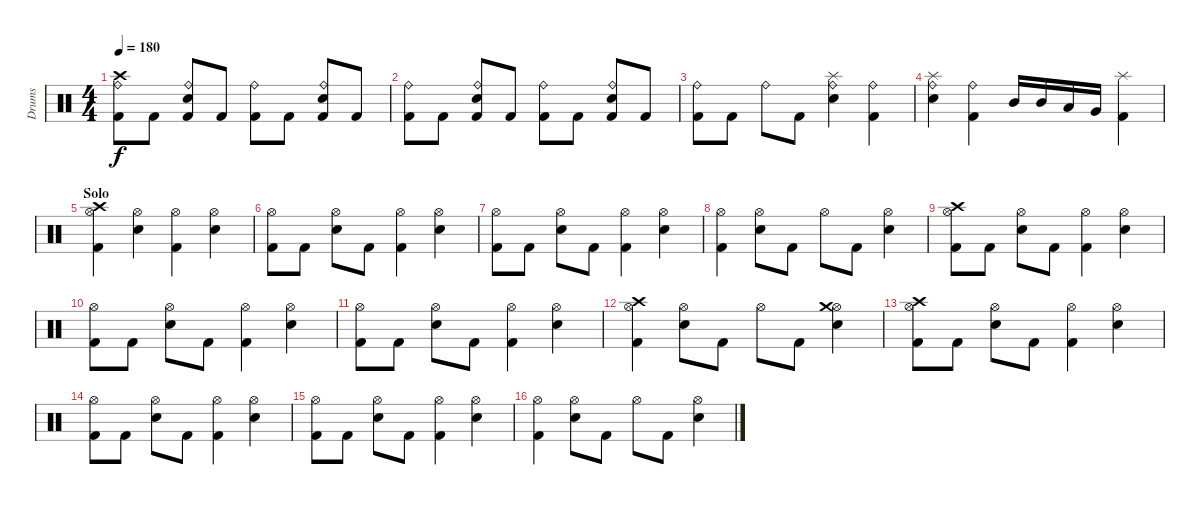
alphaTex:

\track ("Drums" "Drums") {instrument percussion}
\staff {score}
\articulation defaults
\ts (4 4)
\tempo 180
\clef neutral
\ks c
("Kick (hit) 2" "Crash high (hit)" "Ride (bell)").8{dy f} "Kick (hit) 2".8 ("Kick (hit) 2" "Electric Snare (hit)" "Ride (bell)").8 "Kick (hit) 2".8 ("Kick (hit) 2" "Ride (bell)").8 "Kick (hit) 2".8 ("Kick (hit) 2" "Electric Snare (hit)" "Ride (bell)").8 "Kick (hit) 2".8 |
("Kick (hit) 2" "Ride (bell)").8 "Kick (hit) 2".8 ("Kick (hit) 2" "Electric Snare (hit)" "Ride (bell)").8 "Kick (hit) 2".8 ("Kick (hit) 2" "Ride (bell)").8 "Kick (hit) 2".8 ("Kick (hit) 2" "Electric Snare (hit)" "Ride (bell)").8 "Kick (hit) 2".8 |
("Ride (bell)" "Kick (hit) 2").8 "Kick (hit) 2".8 "Ride (bell)".8 "Kick (hit) 2".8 ("Ride (bell)" "Electric Snare (hit)" "Splash (hit)").4 ("Ride (bell)" "Kick (hit) 2").4 |
("Ride (bell)" "Electric Snare (hit)" "Splash (hit)").4 ("Ride (bell)" "Kick (hit) 2").4 "Mid Tom (hit)".16 "Mid Tom (hit)".16 "Low Tom (hit)".16 "Very Low Tom (hit)".16 ("Kick (hit) 2" "Splash (hit)").4 |
\section ("" "Solo")
("Hi-Hat (open)" "Kick (hit) 2" "Crash high (hit)").4 ("Hi-Hat (open)" "Electric Snare (hit)").4 ("Hi-Hat (open)" "Kick (hit) 2").4 ("Hi-Hat (open)" "Electric Snare (hit)").4 |
("Hi-Hat (open)" "Kick (hit) 2").8 "Kick (hit) 2".8 ("Hi-Hat (open)" "Electric Snare (hit)").8 "Kick (hit) 2".8 ("Hi-Hat (open)" "Kick (hit) 2").4 ("Hi-Hat (open)" "Electric Snare (hit)").4 |
("Hi-Hat (open)" "Kick (hit) 2").8 "Kick (hit) 2".8 ("Hi-Hat (open)" "Electric Snare (hit)").8 "Kick (hit) 2".8 ("Hi-Hat (open)" "Kick (hit) 2").4 ("Hi-Hat (open)" "Electric Snare (hit)").4 |
("Hi-Hat (open)" "Kick (hit) 2").4 ("Hi-Hat (open)" "Electric Snare (hit)").8 "Kick (hit) 2".8 "Hi-Hat (open)".8 "Kick (hit) 2".8 ("Hi-Hat (open)" "Electric Snare (hit)").4 |
("Hi-Hat (open)" "Kick (hit) 2" "Crash high (hit)").8 "Kick (hit) 2".8 ("Hi-Hat (open)" "Electric Snare (hit)").8 "Kick (hit) 2".8 ("Hi-Hat (open)" "Kick (hit) 2").4 ("Hi-Hat (open)" "Electric Snare (hit)").4 |
("Hi-Hat (open)" "Kick (hit) 2").8 "Kick (hit) 2".8 ("Hi-Hat (open)" "Electric Snare (hit)").8 "Kick (hit) 2".8 ("Hi-Hat (open)" "Kick (hit) 2").4 ("Hi-Hat (open)" "Electric Snare (hit)").4 |
("Hi-Hat (open)" "Kick (hit) 2").8 "Kick (hit) 2".8 ("Hi-Hat (open)" "Electric Snare (hit)").8 "Kick (hit) 2".8 ("Hi-Hat (open)" "Kick (hit) 2").4 ("Hi-Hat (open)" "Electric Snare (hit)").4 |
("Hi-Hat (open)" "Kick (hit) 2" "Crash high (hit)").4 ("Hi-Hat (open)" "Electric Snare (hit)").8 "Kick (hit) 2".8 "Hi-Hat (open)".8 "Kick (hit) 2".8 ("Hi-Hat (open)" "Electric Snare (hit)" "Crash medium (hit)").4 |
("Hi-Hat (open)" "Kick (hit) 2" "Crash high (hit)").8 "Kick (hit) 2".8 ("Hi-Hat (open)" "Electric Snare (hit)").8 "Kick (hit) 2".8 ("Hi-Hat (open)" "Kick (hit) 2").4 ("Hi-Hat (open)" "Electric Snare (hit)").4 |
("Hi-Hat (open)" "Kick (hit) 2").8 "Kick (hit) 2".8 ("Hi-Hat (open)" "Electric Snare (hit)").8 "Kick (hit) 2".8 ("Hi-Hat (open)" "Kick (hit) 2").4 ("Hi-Hat (open)" "Electric Snare (hit)").4 |
("Hi-Hat (open)" "Kick (hit) 2").8 "Kick (hit) 2".8 ("Hi-Hat (open)" "Electric Snare (hit)").8 "Kick (hit) 2".8 ("Hi-Hat (open)" "Kick (hit) 2").4 ("Hi-Hat (open)" "Electric Snare (hit)").4 |
("Hi-Hat (open)" "Kick (hit) 2").4 ("Hi-Hat (open)" "Electric Snare (hit)").8 "Kick (hit) 2".8 "Hi-Hat (open)".8 "Kick (hit) 2".8 ("Hi-Hat (open)" "Electric Snare (hit)").4
